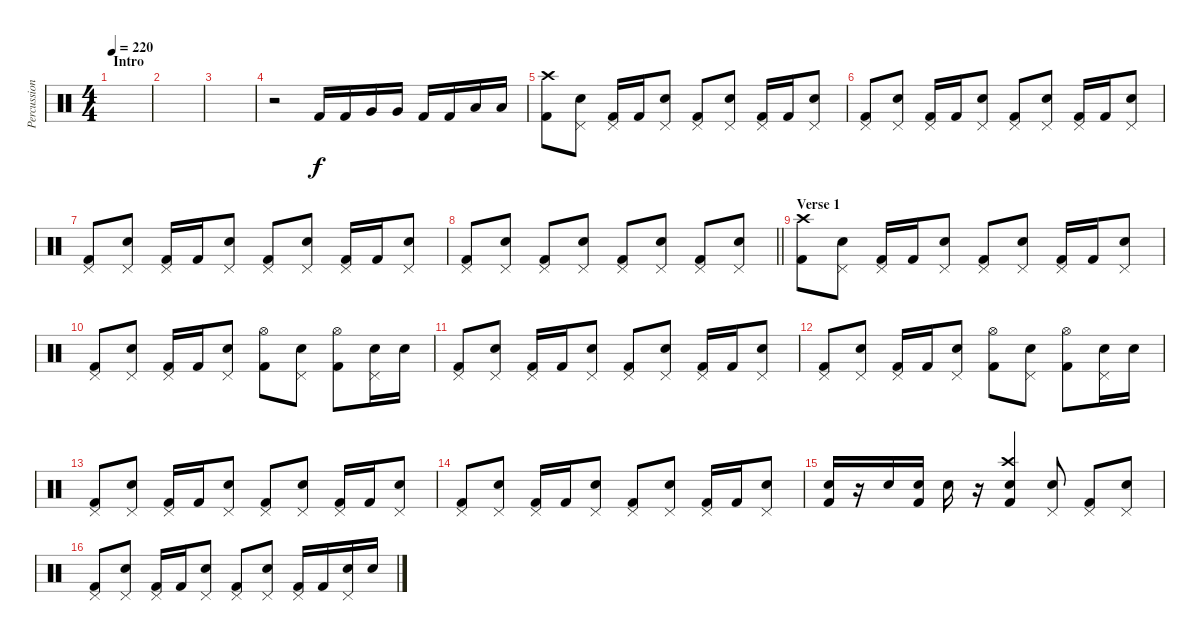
\track ("Percussion" "Percussion") {instrument percussion}
\staff {score}
\articulation defaults
\ts (4 4)
\section ("" "Intro")
\tempo 220
\clef neutral
\ks c
|
|
|
r.2 "Kick (hit) 2".16 "Kick (hit) 2".16 "Very Low Tom (hit)".16 "Very Low Tom (hit)".16 "Kick (hit) 2".16 "Kick (hit) 2".16 "Low Floor Tom (hit)".16 "Low Floor Tom (hit)".16 |
("Crash high (hit)" "Kick (hit) 2").8 ("Pedal Hi-Hat (hit)" "Snare (hit) 2").8 ("Pedal Hi-Hat (hit)" "Kick (hit) 2").16 "Kick (hit) 2".16 ("Pedal Hi-Hat (hit)" "Snare (hit) 2").8 ("Pedal Hi-Hat (hit)" "Kick (hit) 2").8 ("Pedal Hi-Hat (hit)" "Snare (hit) 2").8 ("Pedal Hi-Hat (hit)" "Kick (hit) 2").16 "Kick (hit) 2".16 ("Pedal Hi-Hat (hit)" "Snare (hit) 2").8 |
("Pedal Hi-Hat (hit)" "Kick (hit) 2").8 ("Pedal Hi-Hat (hit)" "Snare (hit) 2").8 ("Pedal Hi-Hat (hit)" "Kick (hit) 2").16 "Kick (hit) 2".16 ("Pedal Hi-Hat (hit)" "Snare (hit) 2").8 ("Pedal Hi-Hat (hit)" "Kick (hit) 2").8 ("Pedal Hi-Hat (hit)" "Snare (hit) 2").8 ("Pedal Hi-Hat (hit)" "Kick (hit) 2").16 "Kick (hit) 2".16 ("Pedal Hi-Hat (hit)" "Snare (hit) 2").8 |
("Pedal Hi-Hat (hit)" "Kick (hit) 2").8 ("Pedal Hi-Hat (hit)" "Snare (hit) 2").8 ("Pedal Hi-Hat (hit)" "Kick (hit) 2").16 "Kick (hit) 2".16 ("Pedal Hi-Hat (hit)" "Snare (hit) 2").8 ("Pedal Hi-Hat (hit)" "Kick (hit) 2").8 ("Pedal Hi-Hat (hit)" "Snare (hit) 2").8 ("Pedal Hi-Hat (hit)" "Kick (hit) 2").16 "Kick (hit) 2".16 ("Pedal Hi-Hat (hit)" "Snare (hit) 2").8 |
\barLineRight lightlight
("Pedal Hi-Hat (hit)" "Kick (hit) 2").8 ("Pedal Hi-Hat (hit)" "Snare (hit) 2").8 ("Pedal Hi-Hat (hit)" "Kick (hit) 2").8 ("Pedal Hi-Hat (hit)" "Snare (hit) 2").8 ("Pedal Hi-Hat (hit)" "Kick (hit) 2").8 ("Pedal Hi-Hat (hit)" "Snare (hit) 2").8 ("Pedal Hi-Hat (hit)" "Kick (hit) 2").8 ("Pedal Hi-Hat (hit)" "Snare (hit) 2").8 |
\section ("" "Verse 1")
("Crash high (hit)" "Kick (hit) 2").8 ("Pedal Hi-Hat (hit)" "Snare (hit) 2").8 ("Pedal Hi-Hat (hit)" "Kick (hit) 2").16 "Kick (hit) 2".16 ("Pedal Hi-Hat (hit)" "Snare (hit) 2").8 ("Pedal Hi-Hat (hit)" "Kick (hit) 2").8 ("Pedal Hi-Hat (hit)" "Snare (hit) 2").8 ("Pedal Hi-Hat (hit)" "Kick (hit) 2").16 "Kick (hit) 2".16 ("Pedal Hi-Hat (hit)" "Snare (hit) 2").8 |
("Pedal Hi-Hat (hit)" "Kick (hit) 2").8 ("Pedal Hi-Hat (hit)" "Snare (hit) 2").8 ("Pedal Hi-Hat (hit)" "Kick (hit) 2").16 "Kick (hit) 2".16 ("Pedal Hi-Hat (hit)" "Snare (hit) 2").8 ("Hi-Hat (open)" "Kick (hit) 2").8 ("Pedal Hi-Hat (hit)" "Snare (hit) 2").8 ("Hi-Hat (open)" "Kick (hit) 2").8 ("Pedal Hi-Hat (hit)" "Snare (hit) 2").16 "Snare (hit) 2".16 |
("Pedal Hi-Hat (hit)" "Kick (hit) 2").8 ("Pedal Hi-Hat (hit)" "Snare (hit) 2").8 ("Pedal Hi-Hat (hit)" "Kick (hit) 2").16 "Kick (hit) 2".16 ("Pedal Hi-Hat (hit)" "Snare (hit) 2").8 ("Pedal Hi-Hat (hit)" "Kick (hit) 2").8 ("Pedal Hi-Hat (hit)" "Snare (hit) 2").8 ("Pedal Hi-Hat (hit)" "Kick (hit) 2").16 "Kick (hit) 2".16 ("Pedal Hi-Hat (hit)" "Snare (hit) 2").8 |
("Pedal Hi-Hat (hit)" "Kick (hit) 2").8 ("Pedal Hi-Hat (hit)" "Snare (hit) 2").8 ("Pedal Hi-Hat (hit)" "Kick (hit) 2").16 "Kick (hit) 2".16 ("Pedal Hi-Hat (hit)" "Snare (hit) 2").8 ("Hi-Hat (open)" "Kick (hit) 2").8 ("Pedal Hi-Hat (hit)" "Snare (hit) 2").8 ("Hi-Hat (open)" "Kick (hit) 2").8 ("Pedal Hi-Hat (hit)" "Snare (hit) 2").16 "Snare (hit) 2".16 |
("Pedal Hi-Hat (hit)" "Kick (hit) 2").8 ("Pedal Hi-Hat (hit)" "Snare (hit) 2").8 ("Pedal Hi-Hat (hit)" "Kick (hit) 2").16 "Kick (hit) 2".16 ("Pedal Hi-Hat (hit)" "Snare (hit) 2").8 ("Pedal Hi-Hat (hit)" "Kick (hit) 2").8 ("Pedal Hi-Hat (hit)" "Snare (hit) 2").8 ("Pedal Hi-Hat (hit)" "Kick (hit) 2").16 "Kick (hit) 2".16 ("Pedal Hi-Hat (hit)" "Snare (hit) 2").8 |
("Pedal Hi-Hat (hit)" "Kick (hit) 2").8 ("Pedal Hi-Hat (hit)" "Snare (hit) 2").8 ("Pedal Hi-Hat (hit)" "Kick (hit) 2").16 "Kick (hit) 2".16 ("Pedal Hi-Hat (hit)" "Snare (hit) 2").8 ("Pedal Hi-Hat (hit)" "Kick (hit) 2").8 ("Pedal Hi-Hat (hit)" "Snare (hit) 2").8 ("Pedal Hi-Hat (hit)" "Kick (hit) 2").16 "Kick (hit) 2".16 ("Pedal Hi-Hat (hit)" "Snare (hit) 2").8 |
("Snare (hit) 2" "Kick (hit) 2").16 r.16 "Snare (hit) 2".16 ("Snare (hit) 2" "Kick (hit) 2").16 "Snare (hit) 2".16 r.16 ("Crash high (hit)" "Snare (hit) 2" "Kick (hit) 2").4 ("Pedal Hi-Hat (hit)" "Snare (hit) 2").8 ("Pedal Hi-Hat (hit)" "Kick (hit) 2").8 ("Pedal Hi-Hat (hit)" "Snare (hit) 2").8 |
("Pedal Hi-Hat (hit)" "Kick (hit) 2").8 ("Pedal Hi-Hat (hit)" "Snare (hit) 2").8 ("Pedal Hi-Hat (hit)" "Kick (hit) 2").16 "Kick (hit) 2".16 ("Pedal Hi-Hat (hit)" "Snare (hit) 2").8 ("Pedal Hi-Hat (hit)" "Kick (hit) 2").8 ("Pedal Hi-Hat (hit)" "Snare (hit) 2").8 ("Pedal Hi-Hat (hit)" "Kick (hit) 2").16 "Kick (hit) 2".16 ("Pedal Hi-Hat (hit)" "Snare (hit) 2").16 "Snare (hit) 2".16
